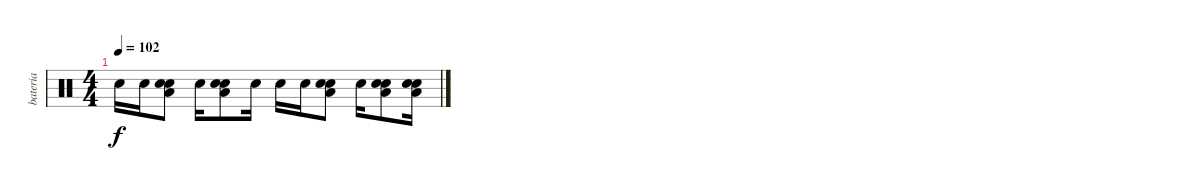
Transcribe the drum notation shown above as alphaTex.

\track ("bateria" "bateria") {instrument percussion}
\staff {score}
\articulation defaults
\ts (4 4)
\tempo 102
\clef neutral
\ks c "Snare (hit) 2".16{dy f} "Snare (hit) 2".16
("Electric Snare (hit)" "Snare (hit) 2" "Low Floor Tom (hit)").8 "Snare (hit) 2".16 ("Electric Snare (hit)" "Snare (hit) 2" "Low Floor Tom (hit)").8 "Snare (hit) 2".16 "Snare (hit) 2".16 "Snare (hit) 2".16 ("Electric Snare (hit)" "Snare (hit) 2" "Low Floor Tom (hit)").8 "Snare (hit) 2".16 ("Electric Snare (hit)" "Snare (hit) 2" "Low Floor Tom (hit)").8 ("Electric Snare (hit)" "Snare (hit) 2" "Low Floor Tom (hit)").16
